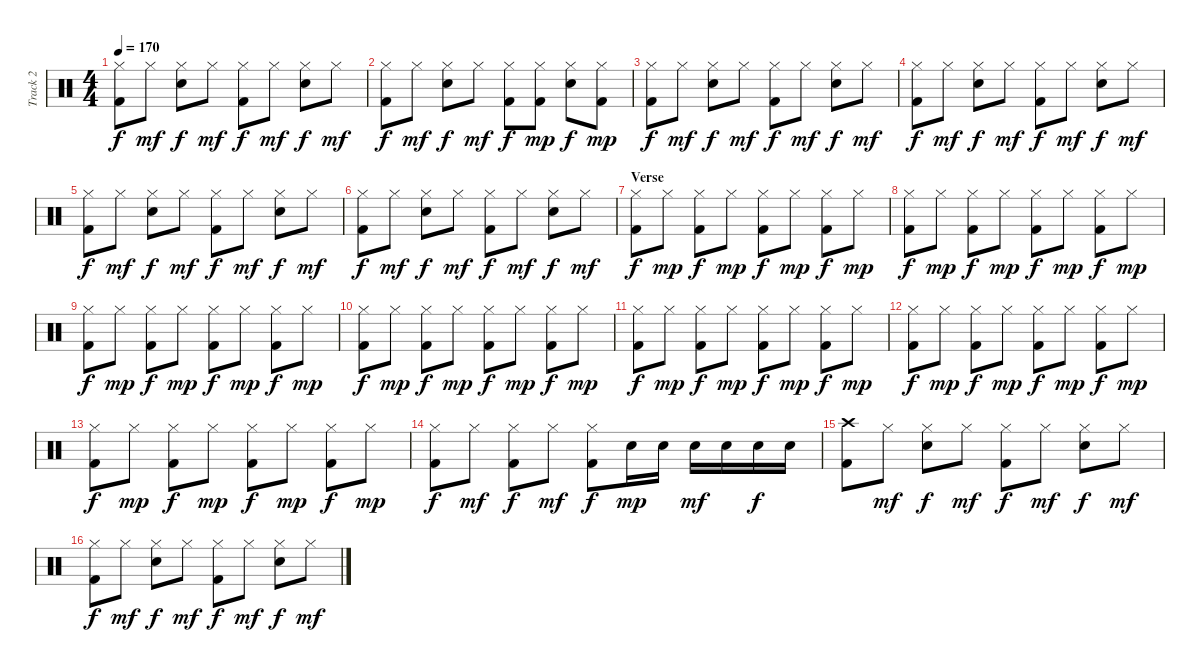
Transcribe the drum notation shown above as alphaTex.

\track ("Track 2" "Track 2") {instrument percussion}
\staff {score}
\articulation defaults
\ts (4 4)
\tempo 170
\clef neutral
\ks c
("Hi-Hat (closed)" "Kick (hit) 2").8{dy f} "Hi-Hat (closed)".8{dy mf} ("Hi-Hat (closed)" "Electric Snare (hit)").8{dy f} "Hi-Hat (closed)".8{dy mf} ("Hi-Hat (closed)" "Kick (hit) 2").8{dy f} "Hi-Hat (closed)".8{dy mf} ("Hi-Hat (closed)" "Electric Snare (hit)").8{dy f} "Hi-Hat (closed)".8{dy mf} |
("Hi-Hat (closed)" "Kick (hit) 2").8{dy f} "Hi-Hat (closed)".8{dy mf} ("Hi-Hat (closed)" "Electric Snare (hit)").8{dy f} "Hi-Hat (closed)".8{dy mf} ("Hi-Hat (closed)" "Kick (hit) 2").8{dy f} ("Hi-Hat (closed)" "Kick (hit) 2").8{dy mp} ("Hi-Hat (closed)" "Electric Snare (hit)").8{dy f} ("Hi-Hat (closed)" "Kick (hit) 2").8{dy mp} |
("Hi-Hat (closed)" "Kick (hit) 2").8{dy f} "Hi-Hat (closed)".8{dy mf} ("Hi-Hat (closed)" "Electric Snare (hit)").8{dy f} "Hi-Hat (closed)".8{dy mf} ("Hi-Hat (closed)" "Kick (hit) 2").8{dy f} "Hi-Hat (closed)".8{dy mf} ("Hi-Hat (closed)" "Electric Snare (hit)").8{dy f} "Hi-Hat (closed)".8{dy mf} |
("Hi-Hat (closed)" "Kick (hit) 2").8{dy f} "Hi-Hat (closed)".8{dy mf} ("Hi-Hat (closed)" "Electric Snare (hit)").8{dy f} "Hi-Hat (closed)".8{dy mf} ("Hi-Hat (closed)" "Kick (hit) 2").8{dy f} "Hi-Hat (closed)".8{dy mf} ("Hi-Hat (closed)" "Electric Snare (hit)").8{dy f} "Hi-Hat (closed)".8{dy mf} |
("Hi-Hat (closed)" "Kick (hit) 2").8{dy f} "Hi-Hat (closed)".8{dy mf} ("Hi-Hat (closed)" "Electric Snare (hit)").8{dy f} "Hi-Hat (closed)".8{dy mf} ("Hi-Hat (closed)" "Kick (hit) 2").8{dy f} "Hi-Hat (closed)".8{dy mf} ("Hi-Hat (closed)" "Electric Snare (hit)").8{dy f} "Hi-Hat (closed)".8{dy mf} |
("Hi-Hat (closed)" "Kick (hit) 2").8{dy f} "Hi-Hat (closed)".8{dy mf} ("Hi-Hat (closed)" "Electric Snare (hit)").8{dy f} "Hi-Hat (closed)".8{dy mf} ("Hi-Hat (closed)" "Kick (hit) 2").8{dy f} "Hi-Hat (closed)".8{dy mf} ("Hi-Hat (closed)" "Electric Snare (hit)").8{dy f} "Hi-Hat (closed)".8{dy mf} |
\section ("" "Verse")
("Hi-Hat (closed)" "Kick (hit) 2").8{dy f} "Hi-Hat (closed)".8{dy mp} ("Hi-Hat (closed)" "Kick (hit) 2").8{dy f} "Hi-Hat (closed)".8{dy mp} ("Hi-Hat (closed)" "Kick (hit) 2").8{dy f} "Hi-Hat (closed)".8{dy mp} ("Hi-Hat (closed)" "Kick (hit) 2").8{dy f} "Hi-Hat (closed)".8{dy mp} |
("Hi-Hat (closed)" "Kick (hit) 2").8{dy f} "Hi-Hat (closed)".8{dy mp} ("Hi-Hat (closed)" "Kick (hit) 2").8{dy f} "Hi-Hat (closed)".8{dy mp} ("Hi-Hat (closed)" "Kick (hit) 2").8{dy f} "Hi-Hat (closed)".8{dy mp} ("Hi-Hat (closed)" "Kick (hit) 2").8{dy f} "Hi-Hat (closed)".8{dy mp} |
("Hi-Hat (closed)" "Kick (hit) 2").8{dy f} "Hi-Hat (closed)".8{dy mp} ("Hi-Hat (closed)" "Kick (hit) 2").8{dy f} "Hi-Hat (closed)".8{dy mp} ("Hi-Hat (closed)" "Kick (hit) 2").8{dy f} "Hi-Hat (closed)".8{dy mp} ("Hi-Hat (closed)" "Kick (hit) 2").8{dy f} "Hi-Hat (closed)".8{dy mp} |
("Hi-Hat (closed)" "Kick (hit) 2").8{dy f} "Hi-Hat (closed)".8{dy mp} ("Hi-Hat (closed)" "Kick (hit) 2").8{dy f} "Hi-Hat (closed)".8{dy mp} ("Hi-Hat (closed)" "Kick (hit) 2").8{dy f} "Hi-Hat (closed)".8{dy mp} ("Hi-Hat (closed)" "Kick (hit) 2").8{dy f} "Hi-Hat (closed)".8{dy mp} |
("Hi-Hat (closed)" "Kick (hit) 2").8{dy f} "Hi-Hat (closed)".8{dy mp} ("Hi-Hat (closed)" "Kick (hit) 2").8{dy f} "Hi-Hat (closed)".8{dy mp} ("Hi-Hat (closed)" "Kick (hit) 2").8{dy f} "Hi-Hat (closed)".8{dy mp} ("Hi-Hat (closed)" "Kick (hit) 2").8{dy f} "Hi-Hat (closed)".8{dy mp} |
("Hi-Hat (closed)" "Kick (hit) 2").8{dy f} "Hi-Hat (closed)".8{dy mp} ("Hi-Hat (closed)" "Kick (hit) 2").8{dy f} "Hi-Hat (closed)".8{dy mp} ("Hi-Hat (closed)" "Kick (hit) 2").8{dy f} "Hi-Hat (closed)".8{dy mp} ("Hi-Hat (closed)" "Kick (hit) 2").8{dy f} "Hi-Hat (closed)".8{dy mp} |
("Hi-Hat (closed)" "Kick (hit) 2").8{dy f} "Hi-Hat (closed)".8{dy mp} ("Hi-Hat (closed)" "Kick (hit) 2").8{dy f} "Hi-Hat (closed)".8{dy mp} ("Hi-Hat (closed)" "Kick (hit) 2").8{dy f} "Hi-Hat (closed)".8{dy mp} ("Hi-Hat (closed)" "Kick (hit) 2").8{dy f} "Hi-Hat (closed)".8{dy mp} |
("Hi-Hat (closed)" "Kick (hit) 2").8{dy f} "Hi-Hat (closed)".8{dy mf} ("Hi-Hat (closed)" "Kick (hit) 2").8{dy f} "Hi-Hat (closed)".8{dy mf} ("Hi-Hat (closed)" "Kick (hit) 2").8{dy f} "Electric Snare (hit)".16{dy mp} "Electric Snare (hit)".16 "Electric Snare (hit)".16{dy mf} "Electric Snare (hit)".16 "Electric Snare (hit)".16{dy f} "Electric Snare (hit)".16 |
("Crash high (hit)" "Kick (hit) 2").8 "Hi-Hat (closed)".8{dy mf} ("Hi-Hat (closed)" "Electric Snare (hit)").8{dy f} "Hi-Hat (closed)".8{dy mf} ("Hi-Hat (closed)" "Kick (hit) 2").8{dy f} "Hi-Hat (closed)".8{dy mf} ("Hi-Hat (closed)" "Electric Snare (hit)").8{dy f} "Hi-Hat (closed)".8{dy mf} |
("Hi-Hat (closed)" "Kick (hit) 2").8{dy f} "Hi-Hat (closed)".8{dy mf} ("Hi-Hat (closed)" "Electric Snare (hit)").8{dy f} "Hi-Hat (closed)".8{dy mf} ("Hi-Hat (closed)" "Kick (hit) 2").8{dy f} "Hi-Hat (closed)".8{dy mf} ("Hi-Hat (closed)" "Electric Snare (hit)").8{dy f} "Hi-Hat (closed)".8{dy mf}
